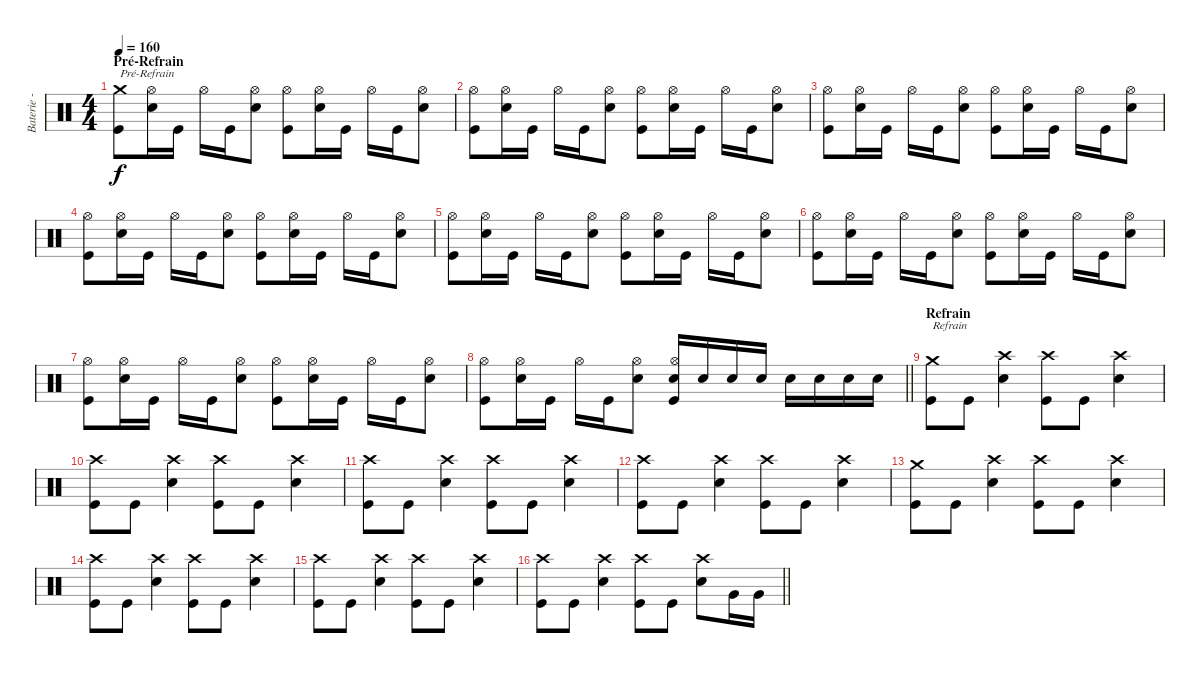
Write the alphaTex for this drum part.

\track ("Baterie - Alex" "Baterie - ") {instrument percussion}
\staff {score}
\articulation defaults
\ts (4 4)
\section ("" "Pré-Refrain")
\tempo 160
\clef neutral
\ks c
("Crash medium (hit)" "Kick (hit)").8{txt "Pré-Refrain" dy f} ("Hi-Hat (open)" "Electric Snare (hit)").16 "Kick (hit)".16 "Hi-Hat (open)".16 "Kick (hit)".16 ("Hi-Hat (open)" "Electric Snare (hit)").8 ("Hi-Hat (open)" "Kick (hit)").8 ("Hi-Hat (open)" "Electric Snare (hit)").16 "Kick (hit)".16 "Hi-Hat (open)".16 "Kick (hit)".16 ("Hi-Hat (open)" "Electric Snare (hit)").8 |
("Hi-Hat (open)" "Kick (hit)").8 ("Hi-Hat (open)" "Electric Snare (hit)").16 "Kick (hit)".16 "Hi-Hat (open)".16 "Kick (hit)".16 ("Hi-Hat (open)" "Electric Snare (hit)").8 ("Hi-Hat (open)" "Kick (hit)").8 ("Hi-Hat (open)" "Electric Snare (hit)").16 "Kick (hit)".16 "Hi-Hat (open)".16 "Kick (hit)".16 ("Hi-Hat (open)" "Electric Snare (hit)").8 |
("Hi-Hat (open)" "Kick (hit)").8 ("Hi-Hat (open)" "Electric Snare (hit)").16 "Kick (hit)".16 "Hi-Hat (open)".16 "Kick (hit)".16 ("Hi-Hat (open)" "Electric Snare (hit)").8 ("Hi-Hat (open)" "Kick (hit)").8 ("Hi-Hat (open)" "Electric Snare (hit)").16 "Kick (hit)".16 "Hi-Hat (open)".16 "Kick (hit)".16 ("Hi-Hat (open)" "Electric Snare (hit)").8 |
("Hi-Hat (open)" "Kick (hit)").8 ("Hi-Hat (open)" "Electric Snare (hit)").16 "Kick (hit)".16 "Hi-Hat (open)".16 "Kick (hit)".16 ("Hi-Hat (open)" "Electric Snare (hit)").8 ("Hi-Hat (open)" "Kick (hit)").8 ("Hi-Hat (open)" "Electric Snare (hit)").16 "Kick (hit)".16 "Hi-Hat (open)".16 "Kick (hit)".16 ("Hi-Hat (open)" "Electric Snare (hit)").8 |
("Hi-Hat (open)" "Kick (hit)").8 ("Hi-Hat (open)" "Electric Snare (hit)").16 "Kick (hit)".16 "Hi-Hat (open)".16 "Kick (hit)".16 ("Hi-Hat (open)" "Electric Snare (hit)").8 ("Hi-Hat (open)" "Kick (hit)").8 ("Hi-Hat (open)" "Electric Snare (hit)").16 "Kick (hit)".16 "Hi-Hat (open)".16 "Kick (hit)".16 ("Hi-Hat (open)" "Electric Snare (hit)").8 |
("Hi-Hat (open)" "Kick (hit)").8 ("Hi-Hat (open)" "Electric Snare (hit)").16 "Kick (hit)".16 "Hi-Hat (open)".16 "Kick (hit)".16 ("Hi-Hat (open)" "Electric Snare (hit)").8 ("Hi-Hat (open)" "Kick (hit)").8 ("Hi-Hat (open)" "Electric Snare (hit)").16 "Kick (hit)".16 "Hi-Hat (open)".16 "Kick (hit)".16 ("Hi-Hat (open)" "Electric Snare (hit)").8 |
("Hi-Hat (open)" "Kick (hit)").8 ("Hi-Hat (open)" "Electric Snare (hit)").16 "Kick (hit)".16 "Hi-Hat (open)".16 "Kick (hit)".16 ("Hi-Hat (open)" "Electric Snare (hit)").8 ("Hi-Hat (open)" "Kick (hit)").8 ("Hi-Hat (open)" "Electric Snare (hit)").16 "Kick (hit)".16 "Hi-Hat (open)".16 "Kick (hit)".16 ("Hi-Hat (open)" "Electric Snare (hit)").8 |
\barLineRight lightlight
("Hi-Hat (open)" "Kick (hit)").8 ("Hi-Hat (open)" "Electric Snare (hit)").16 "Kick (hit)".16 "Hi-Hat (open)".16 "Kick (hit)".16 ("Hi-Hat (open)" "Electric Snare (hit)").8 ("Hi-Hat (open)" "Electric Snare (hit)" "Kick (hit)").16 "Electric Snare (hit)".16 "Electric Snare (hit)".16 "Electric Snare (hit)".16 "Electric Snare (hit)".16 "Electric Snare (hit)".16 "Electric Snare (hit)".16 "Electric Snare (hit)".16 |
\section ("" "Refrain")
("Crash medium (hit)" "Kick (hit)").8{txt "Refrain"} "Kick (hit)".8 ("Crash high (hit)" "Electric Snare (hit)").4 ("Crash high (hit)" "Kick (hit)").8 "Kick (hit)".8 ("Crash high (hit)" "Electric Snare (hit)").4 |
("Crash high (hit)" "Kick (hit)").8 "Kick (hit)".8 ("Crash high (hit)" "Electric Snare (hit)").4 ("Crash high (hit)" "Kick (hit)").8 "Kick (hit)".8 ("Crash high (hit)" "Electric Snare (hit)").4 |
("Crash high (hit)" "Kick (hit)").8 "Kick (hit)".8 ("Crash high (hit)" "Electric Snare (hit)").4 ("Crash high (hit)" "Kick (hit)").8 "Kick (hit)".8 ("Crash high (hit)" "Electric Snare (hit)").4 |
("Crash high (hit)" "Kick (hit)").8 "Kick (hit)".8 ("Crash high (hit)" "Electric Snare (hit)").4 ("Crash high (hit)" "Kick (hit)").8 "Kick (hit)".8 ("Crash high (hit)" "Electric Snare (hit)").4 |
("Crash medium (hit)" "Kick (hit)").8 "Kick (hit)".8 ("Crash high (hit)" "Electric Snare (hit)").4 ("Crash high (hit)" "Kick (hit)").8 "Kick (hit)".8 ("Crash high (hit)" "Electric Snare (hit)").4 |
("Crash high (hit)" "Kick (hit)").8 "Kick (hit)".8 ("Crash high (hit)" "Electric Snare (hit)").4 ("Crash high (hit)" "Kick (hit)").8 "Kick (hit)".8 ("Crash high (hit)" "Electric Snare (hit)").4 |
("Crash high (hit)" "Kick (hit)").8 "Kick (hit)".8 ("Crash high (hit)" "Electric Snare (hit)").4 ("Crash high (hit)" "Kick (hit)").8 "Kick (hit)".8 ("Crash high (hit)" "Electric Snare (hit)").4 |
\barLineRight lightlight
("Crash high (hit)" "Kick (hit)").8 "Kick (hit)".8 ("Crash high (hit)" "Electric Snare (hit)").4 ("Crash high (hit)" "Kick (hit)").8 "Kick (hit)".8 ("Crash high (hit)" "Electric Snare (hit)").8 "Very Low Tom (hit)".16 "Very Low Tom (hit)".16
